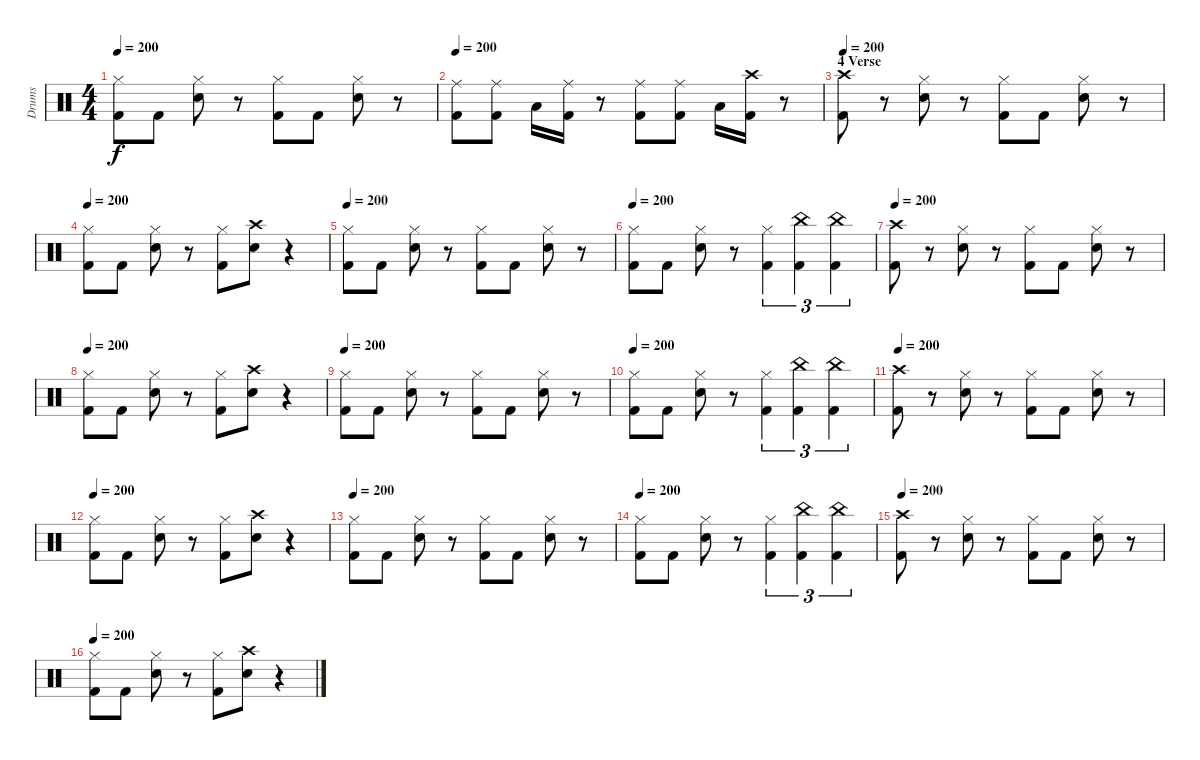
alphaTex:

\track ("Drums" "Drums") {instrument percussion}
\staff {score}
\articulation defaults
\ts (4 4)
\tempo 200
\clef neutral
\ks c
("Kick (hit) 2" "Hi-Hat (closed)").8{dy f} "Kick (hit) 2".8 ("Snare (hit) 2" "Hi-Hat (closed)").8 r.8 ("Kick (hit) 2" "Hi-Hat (closed)").8 "Kick (hit) 2".8 ("Snare (hit) 2" "Hi-Hat (closed)").8 r.8 |
\tempo 200
("Kick (hit) 2" "Ride (middle)").8 ("Kick (hit) 2" "Ride (middle)").8 "Low Tom (hit)".16 ("Ride (middle)" "Kick (hit) 2").16 r.8 ("Ride (middle)" "Kick (hit) 2").8 ("Ride (middle)" "Kick (hit) 2").8 "Low Tom (hit)".16 ("Crash high (hit)" "Kick (hit) 2").16 r.8 |
\section ("" "4 Verse")
\tempo 200
("Kick (hit) 2" "Crash high (hit)").8 r.8 ("Hi-Hat (closed)" "Snare (hit) 2").8 r.8 ("Hi-Hat (closed)" "Kick (hit) 2").8 "Kick (hit) 2".8 ("Hi-Hat (closed)" "Snare (hit) 2").8 r.8 |
\tempo 200
("Kick (hit) 2" "Hi-Hat (closed)").8 "Kick (hit) 2".8 ("Snare (hit) 2" "Hi-Hat (closed)").8 r.8 ("Hi-Hat (closed)" "Kick (hit) 2").8 ("Crash high (hit)" "Snare (hit) 2").8 r.4 |
\tempo 200
("Kick (hit) 2" "Hi-Hat (closed)").8 "Kick (hit) 2".8 ("Snare (hit) 2" "Hi-Hat (closed)").8 r.8 ("Kick (hit) 2" "Hi-Hat (closed)").8 "Kick (hit) 2".8 ("Snare (hit) 2" "Hi-Hat (closed)").8 r.8 |
\tempo 200
("Kick (hit) 2" "Hi-Hat (closed)").8 "Kick (hit) 2".8 ("Snare (hit) 2" "Hi-Hat (closed)").8 r.8 ("Hi-Hat (closed)" "Kick (hit) 2").4{tu (3 2)} ("China (hit)" "Kick (hit) 2").4{tu (3 2)} ("China (hit)" "Kick (hit) 2").4{tu (3 2)} |
\tempo 200
("Kick (hit) 2" "Crash high (hit)").8 r.8 ("Hi-Hat (closed)" "Snare (hit) 2").8 r.8 ("Hi-Hat (closed)" "Kick (hit) 2").8 "Kick (hit) 2".8 ("Hi-Hat (closed)" "Snare (hit) 2").8 r.8 |
\tempo 200
("Kick (hit) 2" "Hi-Hat (closed)").8 "Kick (hit) 2".8 ("Snare (hit) 2" "Hi-Hat (closed)").8 r.8 ("Hi-Hat (closed)" "Kick (hit) 2").8 ("Crash high (hit)" "Snare (hit) 2").8 r.4 |
\tempo 200
("Kick (hit) 2" "Hi-Hat (closed)").8 "Kick (hit) 2".8 ("Snare (hit) 2" "Hi-Hat (closed)").8 r.8 ("Kick (hit) 2" "Hi-Hat (closed)").8 "Kick (hit) 2".8 ("Snare (hit) 2" "Hi-Hat (closed)").8 r.8 |
\tempo 200
("Kick (hit) 2" "Hi-Hat (closed)").8 "Kick (hit) 2".8 ("Snare (hit) 2" "Hi-Hat (closed)").8 r.8 ("Hi-Hat (closed)" "Kick (hit) 2").4{tu (3 2)} ("China (hit)" "Kick (hit) 2").4{tu (3 2)} ("China (hit)" "Kick (hit) 2").4{tu (3 2)} |
\tempo 200
("Kick (hit) 2" "Crash high (hit)").8 r.8 ("Hi-Hat (closed)" "Snare (hit) 2").8 r.8 ("Hi-Hat (closed)" "Kick (hit) 2").8 "Kick (hit) 2".8 ("Hi-Hat (closed)" "Snare (hit) 2").8 r.8 |
\tempo 200
("Kick (hit) 2" "Hi-Hat (closed)").8 "Kick (hit) 2".8 ("Snare (hit) 2" "Hi-Hat (closed)").8 r.8 ("Hi-Hat (closed)" "Kick (hit) 2").8 ("Crash high (hit)" "Snare (hit) 2").8 r.4 |
\tempo 200
("Kick (hit) 2" "Hi-Hat (closed)").8 "Kick (hit) 2".8 ("Snare (hit) 2" "Hi-Hat (closed)").8 r.8 ("Kick (hit) 2" "Hi-Hat (closed)").8 "Kick (hit) 2".8 ("Snare (hit) 2" "Hi-Hat (closed)").8 r.8 |
\tempo 200
("Kick (hit) 2" "Hi-Hat (closed)").8 "Kick (hit) 2".8 ("Snare (hit) 2" "Hi-Hat (closed)").8 r.8 ("Hi-Hat (closed)" "Kick (hit) 2").4{tu (3 2)} ("China (hit)" "Kick (hit) 2").4{tu (3 2)} ("China (hit)" "Kick (hit) 2").4{tu (3 2)} |
\tempo 200
("Kick (hit) 2" "Crash high (hit)").8 r.8 ("Hi-Hat (closed)" "Snare (hit) 2").8 r.8 ("Hi-Hat (closed)" "Kick (hit) 2").8 "Kick (hit) 2".8 ("Hi-Hat (closed)" "Snare (hit) 2").8 r.8 |
\tempo 200
("Kick (hit) 2" "Hi-Hat (closed)").8 "Kick (hit) 2".8 ("Snare (hit) 2" "Hi-Hat (closed)").8 r.8 ("Hi-Hat (closed)" "Kick (hit) 2").8 ("Crash high (hit)" "Snare (hit) 2").8 r.4
